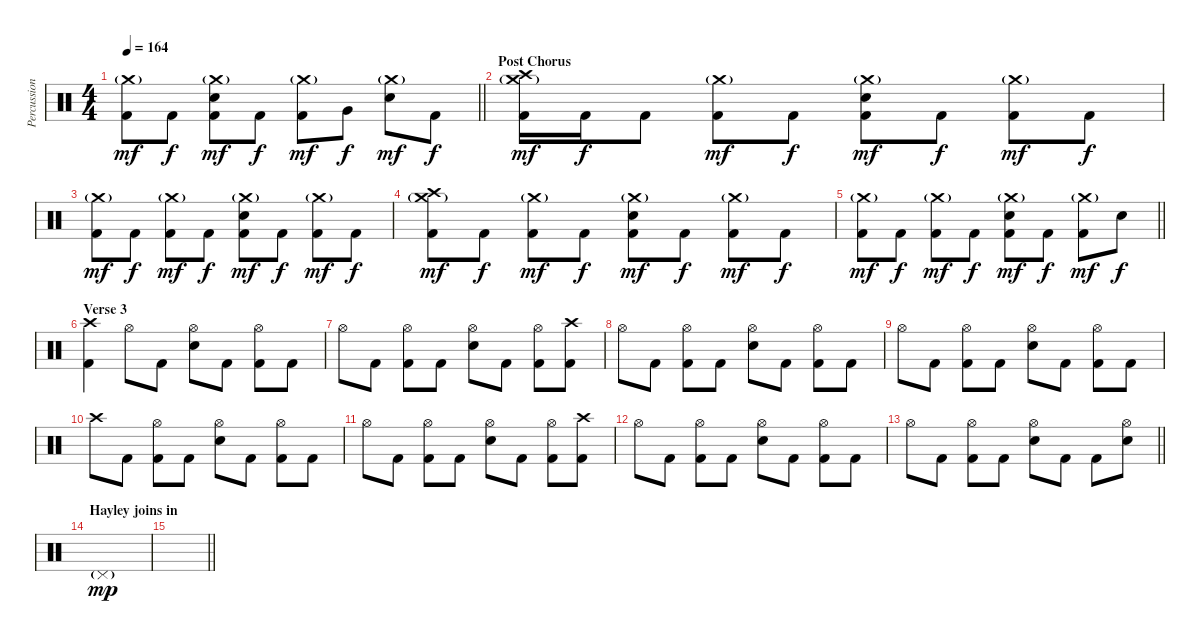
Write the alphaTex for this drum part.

\track ("Percussion - Michael Ambrose" "Percussion") {instrument percussion}
\staff {score}
\articulation defaults
\ts (4 4)
\tempo 164
\clef neutral
\barLineRight lightlight
\ks c
("Crash medium (hit)"{g} "Kick (hit) 2").8{dy mf} "Kick (hit) 2".8{dy f} ("Crash medium (hit)"{g} "Electric Snare (hit)" "Kick (hit) 2").8{dy mf} "Kick (hit) 2".8{dy f} ("Crash medium (hit)"{g} "Kick (hit) 2").8{dy mf} "Very Low Tom (hit)".8{dy f} ("Crash medium (hit)"{g} "Electric Snare (hit)").8{dy mf} "Kick (hit) 2".8{dy f} |
\section ("" "Post Chorus")
("Crash high (hit)" "Crash medium (hit)"{g} "Kick (hit) 2").16{dy mf} "Kick (hit) 2".16{dy f} "Kick (hit) 2".8 ("Crash medium (hit)"{g} "Kick (hit) 2").8{dy mf} "Kick (hit) 2".8{dy f} ("Crash medium (hit)"{g} "Electric Snare (hit)" "Kick (hit) 2").8{dy mf} "Kick (hit) 2".8{dy f} ("Crash medium (hit)"{g} "Kick (hit) 2").8{dy mf} "Kick (hit) 2".8{dy f} |
("Crash medium (hit)"{g} "Kick (hit) 2").8{dy mf} "Kick (hit) 2".8{dy f} ("Crash medium (hit)"{g} "Kick (hit) 2").8{dy mf} "Kick (hit) 2".8{dy f} ("Crash medium (hit)"{g} "Electric Snare (hit)" "Kick (hit) 2").8{dy mf} "Kick (hit) 2".8{dy f} ("Crash medium (hit)"{g} "Kick (hit) 2").8{dy mf} "Kick (hit) 2".8{dy f} |
("Crash high (hit)" "Crash medium (hit)"{g} "Kick (hit) 2").8{dy mf} "Kick (hit) 2".8{dy f} ("Crash medium (hit)"{g} "Kick (hit) 2").8{dy mf} "Kick (hit) 2".8{dy f} ("Crash medium (hit)"{g} "Electric Snare (hit)" "Kick (hit) 2").8{dy mf} "Kick (hit) 2".8{dy f} ("Crash medium (hit)"{g} "Kick (hit) 2").8{dy mf} "Kick (hit) 2".8{dy f} |
\barLineRight lightlight
("Crash medium (hit)"{g} "Kick (hit) 2").8{dy mf} "Kick (hit) 2".8{dy f} ("Crash medium (hit)"{g} "Kick (hit) 2").8{dy mf} "Kick (hit) 2".8{dy f} ("Crash medium (hit)"{g} "Electric Snare (hit)" "Kick (hit) 2").8{dy mf} "Kick (hit) 2".8{dy f} ("Crash medium (hit)"{g} "Kick (hit) 2").8{dy mf} "Electric Snare (hit)".8{dy f} |
\section ("" "Verse 3")
("Crash high (hit)" "Kick (hit) 2").4 "Hi-Hat (open)".8 "Kick (hit) 2".8 ("Hi-Hat (open)" "Electric Snare (hit)").8 "Kick (hit) 2".8 ("Hi-Hat (open)" "Kick (hit) 2").8 "Kick (hit) 2".8 |
"Hi-Hat (open)".8 "Kick (hit) 2".8 ("Hi-Hat (open)" "Kick (hit) 2").8 "Kick (hit) 2".8 ("Hi-Hat (open)" "Electric Snare (hit)").8 "Kick (hit) 2".8 ("Hi-Hat (open)" "Kick (hit) 2").8 ("Crash high (hit)" "Kick (hit) 2").8 |
"Hi-Hat (open)".8 "Kick (hit) 2".8 ("Hi-Hat (open)" "Kick (hit) 2").8 "Kick (hit) 2".8 ("Hi-Hat (open)" "Electric Snare (hit)").8 "Kick (hit) 2".8 ("Hi-Hat (open)" "Kick (hit) 2").8 "Kick (hit) 2".8 |
"Hi-Hat (open)".8 "Kick (hit) 2".8 ("Hi-Hat (open)" "Kick (hit) 2").8 "Kick (hit) 2".8 ("Hi-Hat (open)" "Electric Snare (hit)").8 "Kick (hit) 2".8 ("Hi-Hat (open)" "Kick (hit) 2").8 "Kick (hit) 2".8 |
"Crash high (hit)".8 "Kick (hit) 2".8 ("Hi-Hat (open)" "Kick (hit) 2").8 "Kick (hit) 2".8 ("Hi-Hat (open)" "Electric Snare (hit)").8 "Kick (hit) 2".8 ("Hi-Hat (open)" "Kick (hit) 2").8 "Kick (hit) 2".8 |
"Hi-Hat (open)".8 "Kick (hit) 2".8 ("Hi-Hat (open)" "Kick (hit) 2").8 "Kick (hit) 2".8 ("Hi-Hat (open)" "Electric Snare (hit)").8 "Kick (hit) 2".8 ("Hi-Hat (open)" "Kick (hit) 2").8 ("Crash high (hit)" "Kick (hit) 2").8 |
"Hi-Hat (open)".8 "Kick (hit) 2".8 ("Hi-Hat (open)" "Kick (hit) 2").8 "Kick (hit) 2".8 ("Hi-Hat (open)" "Electric Snare (hit)").8 "Kick (hit) 2".8 ("Hi-Hat (open)" "Kick (hit) 2").8 "Kick (hit) 2".8 |
\barLineRight lightlight "Hi-Hat (open)".8 "Kick (hit) 2".8
("Hi-Hat (open)" "Kick (hit) 2").8 "Kick (hit) 2".8 ("Hi-Hat (open)" "Electric Snare (hit)").8 "Kick (hit) 2".8 "Kick (hit) 2".8 ("Hi-Hat (open)" "Electric Snare (hit)").8 |
\section ("" "Hayley joins in")
"Pedal Hi-Hat (hit)"{g}.1{dy mp} |
\barLineRight lightlight
